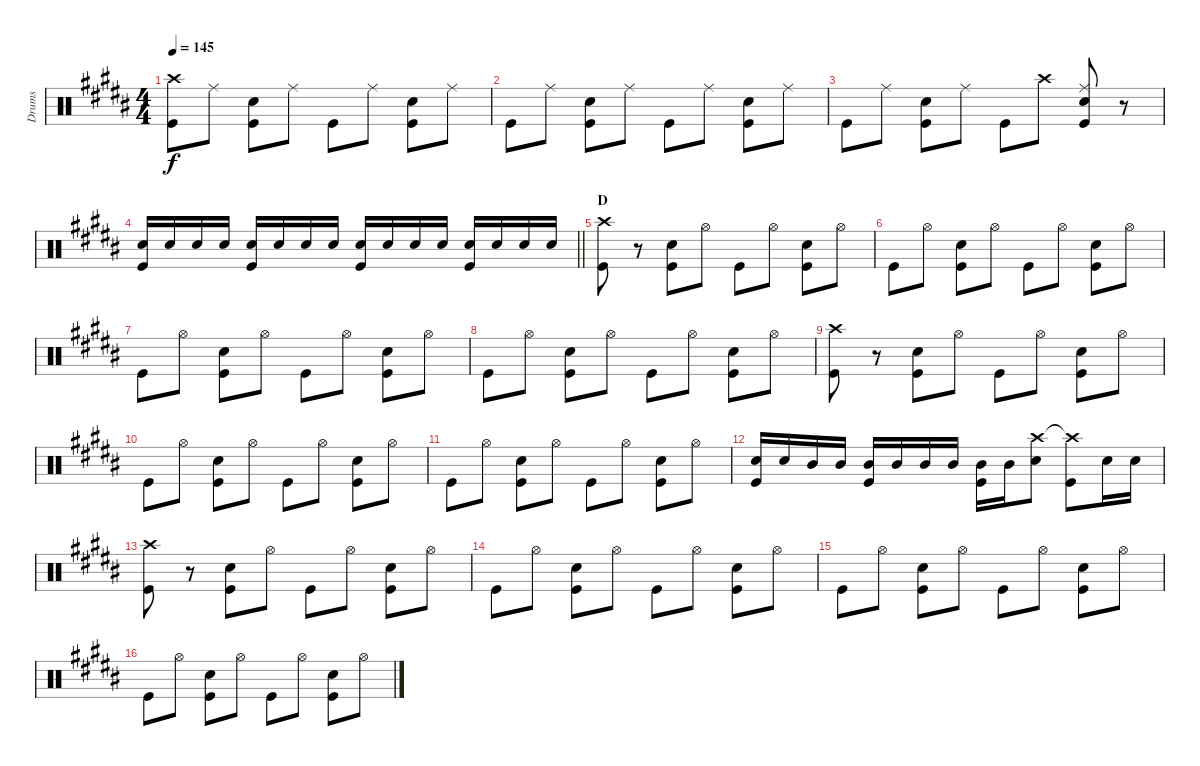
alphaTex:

\track ("Drums" "Drums") {instrument percussion}
\staff {score}
\articulation defaults
\ts (4 4)
\tempo 145
\clef neutral
\ks b
("Crash high (hit)" "Kick (hit)").8{dy f} "Ride (middle)".8 ("Snare (hit) 2" "Kick (hit)").8 "Ride (middle)".8 "Kick (hit)".8 "Ride (middle)".8 ("Snare (hit) 2" "Kick (hit)").8 "Ride (middle)".8 |
"Kick (hit)".8 "Ride (middle)".8 ("Snare (hit) 2" "Kick (hit)").8 "Ride (middle)".8 "Kick (hit)".8 "Ride (middle)".8 ("Snare (hit) 2" "Kick (hit)").8 "Ride (middle)".8 |
"Kick (hit)".8 "Ride (middle)".8 ("Snare (hit) 2" "Kick (hit)").8 "Ride (middle)".8 "Kick (hit)".8 "Crash high (hit)".8 ("Ride (middle)" "Snare (hit) 2" "Kick (hit)").8 r.8 |
\barLineRight lightlight
("Snare (hit) 2" "Kick (hit)").16 "Snare (hit) 2".16 "Snare (hit) 2".16 "Snare (hit) 2".16 ("Snare (hit) 2" "Kick (hit)").16 "Snare (hit) 2".16 "Snare (hit) 2".16 "Snare (hit) 2".16 ("Snare (hit) 2" "Kick (hit)").16 "Snare (hit) 2".16 "Snare (hit) 2".16 "Snare (hit) 2".16 ("Snare (hit) 2" "Kick (hit)").16 "Snare (hit) 2".16 "Snare (hit) 2".16 "Snare (hit) 2".16 |
\section ("" "D")
("Crash high (hit)" "Kick (hit)").8 r.8 ("Snare (hit) 2" "Kick (hit)").8 "Hi-Hat (open)".8 "Kick (hit)".8 "Hi-Hat (open)".8 ("Snare (hit) 2" "Kick (hit)").8 "Hi-Hat (open)".8 |
"Kick (hit)".8 "Hi-Hat (open)".8 ("Snare (hit) 2" "Kick (hit)").8 "Hi-Hat (open)".8 "Kick (hit)".8 "Hi-Hat (open)".8 ("Snare (hit) 2" "Kick (hit)").8 "Hi-Hat (open)".8 |
"Kick (hit)".8 "Hi-Hat (open)".8 ("Snare (hit) 2" "Kick (hit)").8 "Hi-Hat (open)".8 "Kick (hit)".8 "Hi-Hat (open)".8 ("Snare (hit) 2" "Kick (hit)").8 "Hi-Hat (open)".8 |
"Kick (hit)".8 "Hi-Hat (open)".8 ("Snare (hit) 2" "Kick (hit)").8 "Hi-Hat (open)".8 "Kick (hit)".8 "Hi-Hat (open)".8 ("Snare (hit) 2" "Kick (hit)").8 "Hi-Hat (open)".8 |
("Crash high (hit)" "Kick (hit)").8 r.8 ("Snare (hit) 2" "Kick (hit)").8 "Hi-Hat (open)".8 "Kick (hit)".8 "Hi-Hat (open)".8 ("Snare (hit) 2" "Kick (hit)").8 "Hi-Hat (open)".8 |
"Kick (hit)".8 "Hi-Hat (open)".8 ("Snare (hit) 2" "Kick (hit)").8 "Hi-Hat (open)".8 "Kick (hit)".8 "Hi-Hat (open)".8 ("Snare (hit) 2" "Kick (hit)").8 "Hi-Hat (open)".8 |
"Kick (hit)".8 "Hi-Hat (open)".8 ("Snare (hit) 2" "Kick (hit)").8 "Hi-Hat (open)".8 "Kick (hit)".8 "Hi-Hat (open)".8 ("Snare (hit) 2" "Kick (hit)").8 "Hi-Hat (open)".8 |
("Snare (hit) 2" "Kick (hit)").16 "Snare (hit) 2".16 "Mid Tom (hit)".16 "Mid Tom (hit)".16 ("Mid Tom (hit)" "Kick (hit)").16 "Mid Tom (hit)".16 "Mid Tom (hit)".16 "Mid Tom (hit)".16 ("Mid Tom (hit)" "Kick (hit)").16 "Mid Tom (hit)".16 ("Crash high (hit)" "Snare (hit) 2").8 ("Crash high (hit)"{t} "Kick (hit)").8 "Snare (hit) 2".16 "Snare (hit) 2".16 |
("Crash high (hit)" "Kick (hit)").8 r.8 ("Snare (hit) 2" "Kick (hit)").8 "Hi-Hat (open)".8 "Kick (hit)".8 "Hi-Hat (open)".8 ("Snare (hit) 2" "Kick (hit)").8 "Hi-Hat (open)".8 |
"Kick (hit)".8 "Hi-Hat (open)".8 ("Snare (hit) 2" "Kick (hit)").8 "Hi-Hat (open)".8 "Kick (hit)".8 "Hi-Hat (open)".8 ("Snare (hit) 2" "Kick (hit)").8 "Hi-Hat (open)".8 |
"Kick (hit)".8 "Hi-Hat (open)".8 ("Snare (hit) 2" "Kick (hit)").8 "Hi-Hat (open)".8 "Kick (hit)".8 "Hi-Hat (open)".8 ("Snare (hit) 2" "Kick (hit)").8 "Hi-Hat (open)".8 |
"Kick (hit)".8 "Hi-Hat (open)".8 ("Snare (hit) 2" "Kick (hit)").8 "Hi-Hat (open)".8 "Kick (hit)".8 "Hi-Hat (open)".8 ("Snare (hit) 2" "Kick (hit)").8 "Hi-Hat (open)".8
